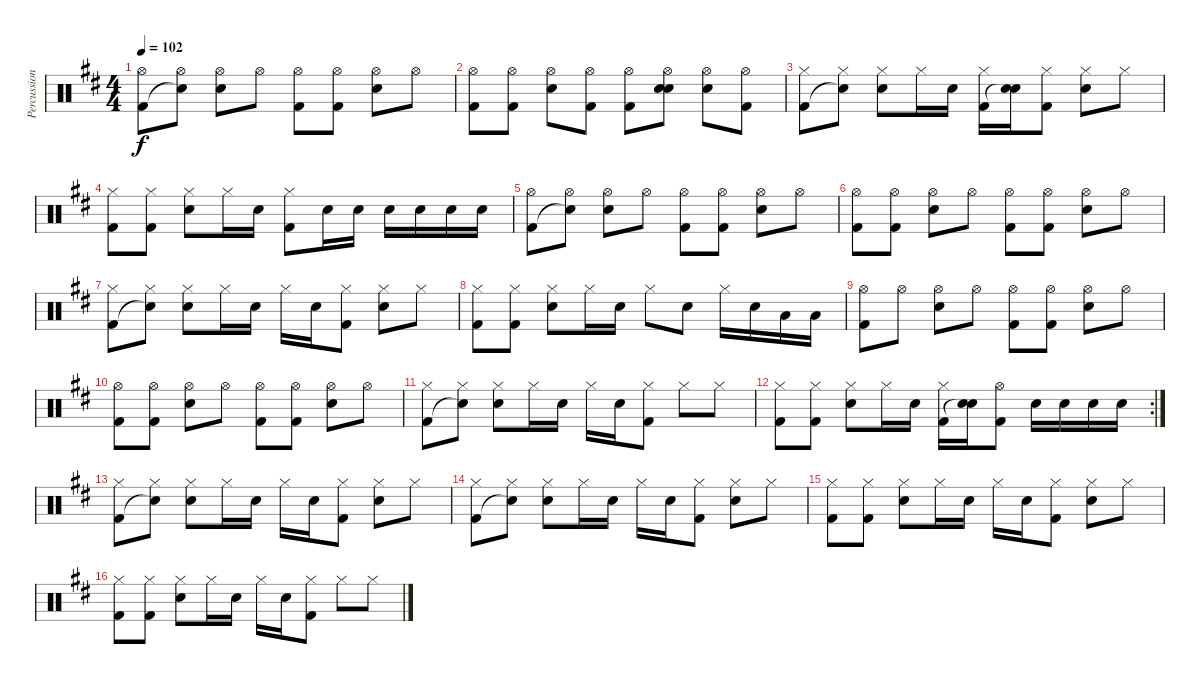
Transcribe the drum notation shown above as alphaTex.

\track ("Percussion" "Percussion") {instrument percussion}
\staff {score}
\articulation defaults
\ts (4 4)
\tempo 102
\clef neutral
\ks d
("Hi-Hat (open)" "Kick (hit) 2").8{dy f} ("Hi-Hat (open)" "Snare (hit)"{t}).8 ("Hi-Hat (open)" "Snare (hit) 2").8 "Hi-Hat (open)".8 ("Hi-Hat (open)" "Kick (hit) 2").8 ("Hi-Hat (open)" "Kick (hit) 2").8 ("Hi-Hat (open)" "Snare (hit) 2").8 "Hi-Hat (open)".8 |
("Hi-Hat (open)" "Kick (hit) 2").8 ("Hi-Hat (open)" "Kick (hit) 2").8 ("Hi-Hat (open)" "Snare (hit) 2").8 ("Hi-Hat (open)" "Kick (hit) 2").8 ("Hi-Hat (open)" "Kick (hit) 2").8 ("Hi-Hat (open)" "Snare (hit) 2" "Snare (hit)"{t}).8 ("Hi-Hat (open)" "Snare (hit) 2").8 ("Hi-Hat (open)" "Kick (hit) 2").8 |
("Hi-Hat (closed)" "Kick (hit) 2").8 ("Hi-Hat (closed)" "Snare (hit)"{t}).8 ("Hi-Hat (closed)" "Snare (hit) 2").8 "Hi-Hat (closed)".16 "Snare (hit) 2".16 ("Hi-Hat (closed)" "Kick (hit) 2").16 ("Snare (hit) 2" "Snare (hit)"{t}).16 ("Hi-Hat (closed)" "Kick (hit) 2").8 ("Hi-Hat (closed)" "Snare (hit) 2").8 "Hi-Hat (closed)".8 |
("Hi-Hat (closed)" "Kick (hit) 2").8 ("Hi-Hat (closed)" "Kick (hit) 2").8 ("Hi-Hat (closed)" "Snare (hit) 2").8 "Hi-Hat (closed)".16 "Snare (hit) 2".16 ("Hi-Hat (closed)" "Kick (hit) 2").8 "Snare (hit) 2".16 "Snare (hit) 2".16 "Snare (hit) 2".16 "Snare (hit) 2".16 "Snare (hit) 2".16 "Snare (hit) 2".16 |
("Hi-Hat (open)" "Kick (hit) 2").8 ("Hi-Hat (open)" "Snare (hit)"{t}).8 ("Hi-Hat (open)" "Snare (hit) 2").8 "Hi-Hat (open)".8 ("Hi-Hat (open)" "Kick (hit) 2").8 ("Hi-Hat (open)" "Kick (hit) 2").8 ("Hi-Hat (open)" "Snare (hit) 2").8 "Hi-Hat (open)".8 |
("Hi-Hat (open)" "Kick (hit) 2").8 ("Hi-Hat (open)" "Kick (hit) 2").8 ("Hi-Hat (open)" "Snare (hit) 2").8 "Hi-Hat (open)".8 ("Hi-Hat (open)" "Kick (hit) 2").8 ("Hi-Hat (open)" "Kick (hit) 2").8 ("Hi-Hat (open)" "Snare (hit) 2").8 "Hi-Hat (open)".8 |
("Hi-Hat (closed)" "Kick (hit) 2").8 ("Hi-Hat (closed)" "Snare (hit)"{t}).8 ("Hi-Hat (closed)" "Snare (hit) 2").8 "Hi-Hat (closed)".16 "Snare (hit) 2".16 "Hi-Hat (closed)".16 "Snare (hit) 2".16 ("Hi-Hat (closed)" "Kick (hit) 2").8 ("Hi-Hat (closed)" "Snare (hit) 2").8 "Hi-Hat (closed)".8 |
("Hi-Hat (closed)" "Kick (hit) 2").8 ("Hi-Hat (closed)" "Kick (hit) 2").8 ("Hi-Hat (closed)" "Snare (hit) 2").8 "Hi-Hat (closed)".16 "Snare (hit) 2".16 "Hi-Hat (closed)".8 "Snare (hit) 2".8 "Hi-Hat (closed)".16 "Snare (hit) 2".16 "Low Tom (hit)".16 "Low Tom (hit)".16 |
("Hi-Hat (open)" "Kick (hit) 2").8 "Hi-Hat (open)".8 ("Hi-Hat (open)" "Snare (hit) 2").8 "Hi-Hat (open)".8 ("Hi-Hat (open)" "Kick (hit) 2").8 ("Hi-Hat (open)" "Kick (hit) 2").8 ("Hi-Hat (open)" "Snare (hit) 2").8 "Hi-Hat (open)".8 |
("Hi-Hat (open)" "Kick (hit) 2").8 ("Hi-Hat (open)" "Kick (hit) 2").8 ("Hi-Hat (open)" "Snare (hit) 2").8 "Hi-Hat (open)".8 ("Hi-Hat (open)" "Kick (hit) 2").8 ("Hi-Hat (open)" "Kick (hit) 2").8 ("Hi-Hat (open)" "Snare (hit) 2").8 "Hi-Hat (open)".8 |
("Hi-Hat (closed)" "Kick (hit) 2").8 ("Hi-Hat (closed)" "Snare (hit)"{t}).8 ("Hi-Hat (closed)" "Snare (hit) 2").8 "Hi-Hat (closed)".16 "Snare (hit) 2".16 "Hi-Hat (closed)".16 "Snare (hit) 2".16 ("Hi-Hat (closed)" "Kick (hit) 2").8 "Hi-Hat (closed)".8 "Hi-Hat (closed)".8 |
\rc 2
("Hi-Hat (closed)" "Kick (hit) 2").8 ("Hi-Hat (closed)" "Kick (hit) 2").8 ("Hi-Hat (closed)" "Snare (hit) 2").8 "Hi-Hat (closed)".16 "Snare (hit) 2".16 ("Hi-Hat (closed)" "Kick (hit) 2").16 ("Snare (hit) 2" "Snare (hit)"{t}).16 ("Hi-Hat (open)" "Kick (hit) 2").8 "Snare (hit) 2".16 "Snare (hit) 2".16 "Snare (hit) 2".16 "Snare (hit) 2".16 |
("Hi-Hat (closed)" "Kick (hit) 2").8 ("Hi-Hat (closed)" "Snare (hit)"{t}).8 ("Hi-Hat (closed)" "Snare (hit) 2").8 "Hi-Hat (closed)".16 "Snare (hit) 2".16 "Hi-Hat (closed)".16 "Snare (hit) 2".16 ("Hi-Hat (closed)" "Kick (hit) 2").8 ("Hi-Hat (closed)" "Snare (hit) 2").8 "Hi-Hat (closed)".8 |
("Hi-Hat (closed)" "Kick (hit) 2").8 ("Hi-Hat (closed)" "Snare (hit)"{t}).8 ("Hi-Hat (closed)" "Snare (hit) 2").8 "Hi-Hat (closed)".16 "Snare (hit) 2".16 "Hi-Hat (closed)".16 "Snare (hit) 2".16 ("Hi-Hat (closed)" "Kick (hit) 2").8 ("Hi-Hat (closed)" "Snare (hit) 2").8 "Hi-Hat (closed)".8 |
("Hi-Hat (closed)" "Kick (hit) 2").8 ("Hi-Hat (closed)" "Kick (hit) 2").8 ("Hi-Hat (closed)" "Snare (hit) 2").8 "Hi-Hat (closed)".16 "Snare (hit) 2".16 "Hi-Hat (closed)".16 "Snare (hit) 2".16 ("Hi-Hat (closed)" "Kick (hit) 2").8 ("Hi-Hat (closed)" "Snare (hit) 2").8 "Hi-Hat (closed)".8 |
("Hi-Hat (closed)" "Kick (hit) 2").8 ("Hi-Hat (closed)" "Kick (hit) 2").8 ("Hi-Hat (closed)" "Snare (hit) 2").8 "Hi-Hat (closed)".16 "Snare (hit) 2".16 "Hi-Hat (closed)".16 "Snare (hit) 2".16 ("Hi-Hat (closed)" "Kick (hit) 2").8 "Hi-Hat (closed)".8 "Hi-Hat (closed)".8
